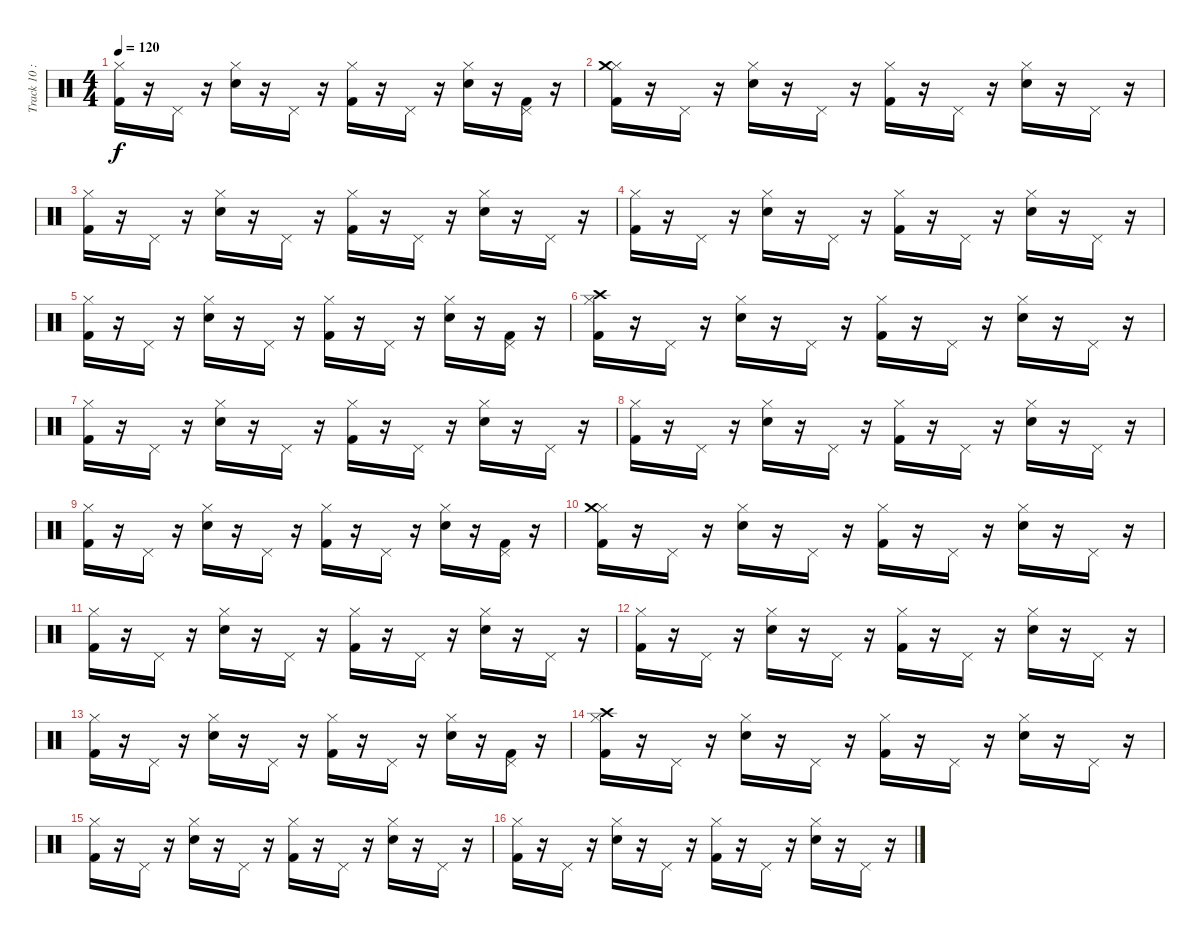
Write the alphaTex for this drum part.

\track ("Track 10 : unspecified" "Track 10 :") {instrument percussion}
\staff {score}
\articulation defaults
\ts (4 4)
\tempo 120
\clef neutral
\ks c
("Kick (hit) 2" "Hi-Hat (closed)").16{dy f} r.16 "Pedal Hi-Hat (hit)".16 r.16 ("Electric Snare (hit)" "Hi-Hat (closed)").16 r.16 "Pedal Hi-Hat (hit)".16 r.16 ("Hi-Hat (closed)" "Kick (hit) 2").16 r.16 "Pedal Hi-Hat (hit)".16 r.16 ("Electric Snare (hit)" "Hi-Hat (closed)").16 r.16 ("Pedal Hi-Hat (hit)" "Kick (hit) 2").16 r.16 |
("Hi-Hat (closed)" "Crash medium (hit)" "Kick (hit) 2").16 r.16 "Pedal Hi-Hat (hit)".16 r.16 ("Hi-Hat (closed)" "Electric Snare (hit)").16 r.16 "Pedal Hi-Hat (hit)".16 r.16 ("Hi-Hat (closed)" "Kick (hit) 2").16 r.16 "Pedal Hi-Hat (hit)".16 r.16 ("Electric Snare (hit)" "Hi-Hat (closed)").16 r.16 "Pedal Hi-Hat (hit)".16 r.16 |
("Kick (hit) 2" "Hi-Hat (closed)").16 r.16 "Pedal Hi-Hat (hit)".16 r.16 ("Electric Snare (hit)" "Hi-Hat (closed)").16 r.16 "Pedal Hi-Hat (hit)".16 r.16 ("Hi-Hat (closed)" "Kick (hit) 2").16 r.16 "Pedal Hi-Hat (hit)".16 r.16 ("Electric Snare (hit)" "Hi-Hat (closed)").16 r.16 "Pedal Hi-Hat (hit)".16 r.16 |
("Kick (hit) 2" "Hi-Hat (closed)").16 r.16 "Pedal Hi-Hat (hit)".16 r.16 ("Electric Snare (hit)" "Hi-Hat (closed)").16 r.16 "Pedal Hi-Hat (hit)".16 r.16 ("Kick (hit) 2" "Hi-Hat (closed)").16 r.16 "Pedal Hi-Hat (hit)".16 r.16 ("Electric Snare (hit)" "Hi-Hat (closed)").16 r.16 "Pedal Hi-Hat (hit)".16 r.16 |
("Kick (hit) 2" "Hi-Hat (closed)").16 r.16 "Pedal Hi-Hat (hit)".16 r.16 ("Electric Snare (hit)" "Hi-Hat (closed)").16 r.16 "Pedal Hi-Hat (hit)".16 r.16 ("Hi-Hat (closed)" "Kick (hit) 2").16 r.16 "Pedal Hi-Hat (hit)".16 r.16 ("Electric Snare (hit)" "Hi-Hat (closed)").16 r.16 ("Pedal Hi-Hat (hit)" "Kick (hit) 2").16 r.16 |
("Hi-Hat (closed)" "Crash high (hit)" "Kick (hit) 2").16 r.16 "Pedal Hi-Hat (hit)".16 r.16 ("Hi-Hat (closed)" "Electric Snare (hit)").16 r.16 "Pedal Hi-Hat (hit)".16 r.16 ("Hi-Hat (closed)" "Kick (hit) 2").16 r.16 "Pedal Hi-Hat (hit)".16 r.16 ("Electric Snare (hit)" "Hi-Hat (closed)").16 r.16 "Pedal Hi-Hat (hit)".16 r.16 |
("Kick (hit) 2" "Hi-Hat (closed)").16 r.16 "Pedal Hi-Hat (hit)".16 r.16 ("Electric Snare (hit)" "Hi-Hat (closed)").16 r.16 "Pedal Hi-Hat (hit)".16 r.16 ("Hi-Hat (closed)" "Kick (hit) 2").16 r.16 "Pedal Hi-Hat (hit)".16 r.16 ("Electric Snare (hit)" "Hi-Hat (closed)").16 r.16 "Pedal Hi-Hat (hit)".16 r.16 |
("Kick (hit) 2" "Hi-Hat (closed)").16 r.16 "Pedal Hi-Hat (hit)".16 r.16 ("Electric Snare (hit)" "Hi-Hat (closed)").16 r.16 "Pedal Hi-Hat (hit)".16 r.16 ("Kick (hit) 2" "Hi-Hat (closed)").16 r.16 "Pedal Hi-Hat (hit)".16 r.16 ("Electric Snare (hit)" "Hi-Hat (closed)").16 r.16 "Pedal Hi-Hat (hit)".16 r.16 |
("Kick (hit) 2" "Hi-Hat (closed)").16 r.16 "Pedal Hi-Hat (hit)".16 r.16 ("Electric Snare (hit)" "Hi-Hat (closed)").16 r.16 "Pedal Hi-Hat (hit)".16 r.16 ("Hi-Hat (closed)" "Kick (hit) 2").16 r.16 "Pedal Hi-Hat (hit)".16 r.16 ("Electric Snare (hit)" "Hi-Hat (closed)").16 r.16 ("Pedal Hi-Hat (hit)" "Kick (hit) 2").16 r.16 |
("Hi-Hat (closed)" "Crash medium (hit)" "Kick (hit) 2").16 r.16 "Pedal Hi-Hat (hit)".16 r.16 ("Hi-Hat (closed)" "Electric Snare (hit)").16 r.16 "Pedal Hi-Hat (hit)".16 r.16 ("Hi-Hat (closed)" "Kick (hit) 2").16 r.16 "Pedal Hi-Hat (hit)".16 r.16 ("Electric Snare (hit)" "Hi-Hat (closed)").16 r.16 "Pedal Hi-Hat (hit)".16 r.16 |
("Kick (hit) 2" "Hi-Hat (closed)").16 r.16 "Pedal Hi-Hat (hit)".16 r.16 ("Electric Snare (hit)" "Hi-Hat (closed)").16 r.16 "Pedal Hi-Hat (hit)".16 r.16 ("Hi-Hat (closed)" "Kick (hit) 2").16 r.16 "Pedal Hi-Hat (hit)".16 r.16 ("Electric Snare (hit)" "Hi-Hat (closed)").16 r.16 "Pedal Hi-Hat (hit)".16 r.16 |
("Kick (hit) 2" "Hi-Hat (closed)").16 r.16 "Pedal Hi-Hat (hit)".16 r.16 ("Electric Snare (hit)" "Hi-Hat (closed)").16 r.16 "Pedal Hi-Hat (hit)".16 r.16 ("Kick (hit) 2" "Hi-Hat (closed)").16 r.16 "Pedal Hi-Hat (hit)".16 r.16 ("Electric Snare (hit)" "Hi-Hat (closed)").16 r.16 "Pedal Hi-Hat (hit)".16 r.16 |
("Kick (hit) 2" "Hi-Hat (closed)").16 r.16 "Pedal Hi-Hat (hit)".16 r.16 ("Electric Snare (hit)" "Hi-Hat (closed)").16 r.16 "Pedal Hi-Hat (hit)".16 r.16 ("Hi-Hat (closed)" "Kick (hit) 2").16 r.16 "Pedal Hi-Hat (hit)".16 r.16 ("Electric Snare (hit)" "Hi-Hat (closed)").16 r.16 ("Pedal Hi-Hat (hit)" "Kick (hit) 2").16 r.16 |
("Hi-Hat (closed)" "Crash high (hit)" "Kick (hit) 2").16 r.16 "Pedal Hi-Hat (hit)".16 r.16 ("Hi-Hat (closed)" "Electric Snare (hit)").16 r.16 "Pedal Hi-Hat (hit)".16 r.16 ("Hi-Hat (closed)" "Kick (hit) 2").16 r.16 "Pedal Hi-Hat (hit)".16 r.16 ("Electric Snare (hit)" "Hi-Hat (closed)").16 r.16 "Pedal Hi-Hat (hit)".16 r.16 |
("Kick (hit) 2" "Hi-Hat (closed)").16 r.16 "Pedal Hi-Hat (hit)".16 r.16 ("Electric Snare (hit)" "Hi-Hat (closed)").16 r.16 "Pedal Hi-Hat (hit)".16 r.16 ("Hi-Hat (closed)" "Kick (hit) 2").16 r.16 "Pedal Hi-Hat (hit)".16 r.16 ("Electric Snare (hit)" "Hi-Hat (closed)").16 r.16 "Pedal Hi-Hat (hit)".16 r.16 |
("Kick (hit) 2" "Hi-Hat (closed)").16 r.16 "Pedal Hi-Hat (hit)".16 r.16 ("Electric Snare (hit)" "Hi-Hat (closed)").16 r.16 "Pedal Hi-Hat (hit)".16 r.16 ("Kick (hit) 2" "Hi-Hat (closed)").16 r.16 "Pedal Hi-Hat (hit)".16 r.16 ("Electric Snare (hit)" "Hi-Hat (closed)").16 r.16 "Pedal Hi-Hat (hit)".16 r.16
